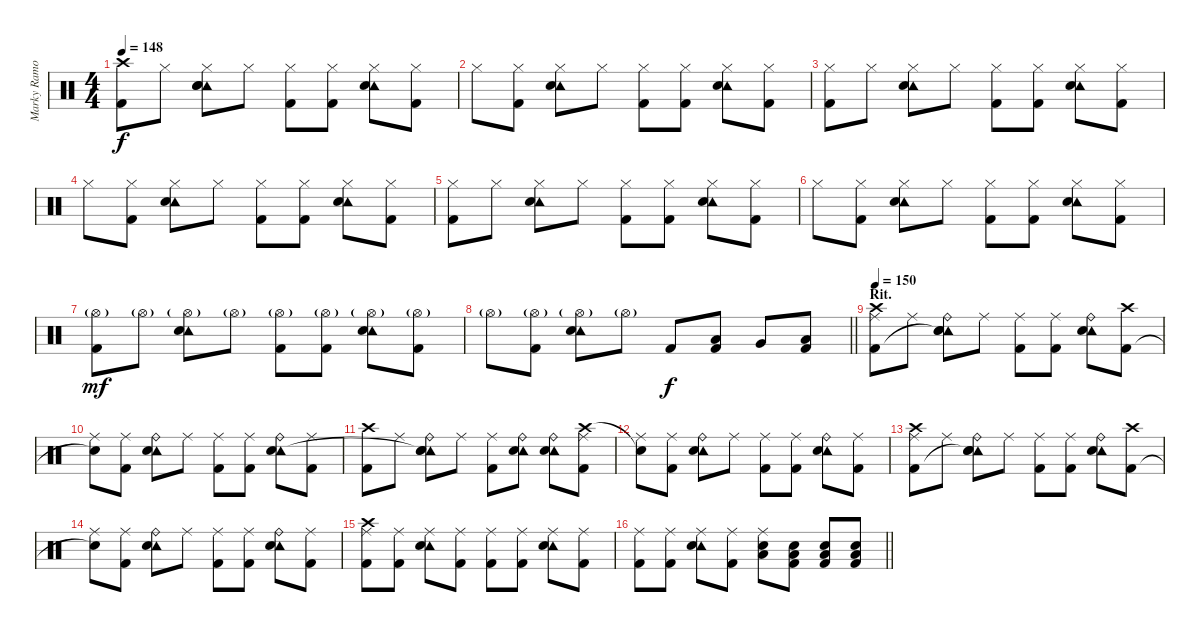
\track ("Marky Ramone - Drum" "Marky Ramo") {instrument percussion}
\staff {score}
\articulation defaults
\ts (4 4)
\tempo 148
\clef neutral
\ks c
("Crash high (hit)" "Kick (hit) 2").8{dy f} "Hi-Hat (closed)".8 ("Hi-Hat (closed)" "Tambourine (hit)" "Snare (hit)"{t} "Snare (hit) 2").8 "Hi-Hat (closed)".8 ("Hi-Hat (closed)" "Kick (hit) 2").8 ("Hi-Hat (closed)" "Kick (hit) 2").8 ("Hi-Hat (closed)" "Tambourine (hit)" "Snare (hit) 2").8 ("Hi-Hat (closed)" "Kick (hit) 2").8 |
"Hi-Hat (closed)".8 ("Hi-Hat (closed)" "Kick (hit) 2").8 ("Hi-Hat (closed)" "Tambourine (hit)" "Snare (hit) 2").8 "Hi-Hat (closed)".8 ("Hi-Hat (closed)" "Kick (hit) 2").8 ("Hi-Hat (closed)" "Kick (hit) 2").8 ("Hi-Hat (closed)" "Tambourine (hit)" "Snare (hit) 2").8 ("Hi-Hat (closed)" "Kick (hit) 2").8 |
("Hi-Hat (closed)" "Kick (hit) 2").8 "Hi-Hat (closed)".8 ("Hi-Hat (closed)" "Tambourine (hit)" "Snare (hit) 2").8 "Hi-Hat (closed)".8 ("Hi-Hat (closed)" "Kick (hit) 2").8 ("Hi-Hat (closed)" "Kick (hit) 2").8 ("Hi-Hat (closed)" "Tambourine (hit)" "Snare (hit) 2").8 ("Hi-Hat (closed)" "Kick (hit) 2").8 |
"Hi-Hat (closed)".8 ("Hi-Hat (closed)" "Kick (hit) 2").8 ("Hi-Hat (closed)" "Tambourine (hit)" "Snare (hit) 2").8 "Hi-Hat (closed)".8 ("Hi-Hat (closed)" "Kick (hit) 2").8 ("Hi-Hat (closed)" "Kick (hit) 2").8 ("Hi-Hat (closed)" "Tambourine (hit)" "Snare (hit) 2").8 ("Hi-Hat (closed)" "Kick (hit) 2").8 |
("Hi-Hat (closed)" "Kick (hit) 2").8 "Hi-Hat (closed)".8 ("Hi-Hat (closed)" "Tambourine (hit)" "Snare (hit) 2").8 "Hi-Hat (closed)".8 ("Hi-Hat (closed)" "Kick (hit) 2").8 ("Hi-Hat (closed)" "Kick (hit) 2").8 ("Hi-Hat (closed)" "Tambourine (hit)" "Snare (hit) 2").8 ("Hi-Hat (closed)" "Kick (hit) 2").8 |
"Hi-Hat (closed)".8 ("Hi-Hat (closed)" "Kick (hit) 2").8 ("Hi-Hat (closed)" "Tambourine (hit)" "Snare (hit) 2").8 "Hi-Hat (closed)".8 ("Hi-Hat (closed)" "Kick (hit) 2").8 ("Hi-Hat (closed)" "Kick (hit) 2").8 ("Hi-Hat (closed)" "Tambourine (hit)" "Snare (hit) 2").8 ("Hi-Hat (closed)" "Kick (hit) 2").8 |
("Hi-Hat (open)"{g} "Kick (hit) 2").8{dy mf} "Hi-Hat (open)"{g}.8 ("Hi-Hat (open)"{g} "Tambourine (hit)" "Snare (hit) 2").8 "Hi-Hat (open)"{g}.8 ("Hi-Hat (open)"{g} "Kick (hit) 2").8 ("Hi-Hat (open)"{g} "Kick (hit) 2").8 ("Hi-Hat (open)"{g} "Tambourine (hit)" "Snare (hit) 2").8 ("Hi-Hat (open)"{g} "Kick (hit) 2").8 |
\barLineRight lightlight "Hi-Hat (open)"{g}.8
("Hi-Hat (open)"{g} "Kick (hit) 2").8 ("Hi-Hat (open)"{g} "Tambourine (hit)" "Snare (hit) 2").8 "Hi-Hat (open)"{g}.8 "Kick (hit) 2".8{dy f} ("Low Tom (hit)" "Kick (hit) 2").8 "Very Low Tom (hit)".8 ("Low Floor Tom (hit)" "Kick (hit) 2").8 |
\section ("" "Rit.")
\tempo 150
("Ride (middle)" "Crash high (hit)" "Kick (hit) 2").8 "Ride (middle)".8 ("Ride (bell)" "Tambourine (hit)" "Snare (hit)"{t} "Snare (hit) 2").8 "Ride (middle)".8 ("Ride (middle)" "Kick (hit) 2").8 ("Ride (middle)" "Kick (hit) 2").8 ("Ride (bell)" "Tambourine (hit)" "Snare (hit) 2").8 ("Crash high (hit)" "Kick (hit) 2").8 |
("Ride (middle)" "Snare (hit)"{t}).8 ("Ride (middle)" "Kick (hit) 2").8 ("Ride (bell)" "Tambourine (hit)" "Snare (hit) 2").8 "Ride (middle)".8 ("Ride (middle)" "Kick (hit) 2").8 ("Ride (middle)" "Kick (hit) 2").8 ("Ride (bell)" "Tambourine (hit)" "Snare (hit) 2").8 ("Ride (middle)" "Kick (hit) 2").8 |
("Crash high (hit)" "Kick (hit) 2").8 "Ride (middle)".8 ("Ride (bell)" "Tambourine (hit)" "Snare (hit)"{t} "Snare (hit) 2").8 "Ride (middle)".8 ("Ride (middle)" "Kick (hit) 2").8 ("Ride (bell)" "Tambourine (hit)" "Snare (hit) 2").8 ("Ride (bell)" "Tambourine (hit)" "Snare (hit) 2").8 ("Ride (middle)" "Crash high (hit)" "Kick (hit) 2").8 |
("Ride (middle)" "Snare (hit)"{t}).8 ("Ride (middle)" "Kick (hit) 2").8 ("Ride (bell)" "Tambourine (hit)" "Snare (hit) 2").8 "Ride (middle)".8 ("Ride (middle)" "Kick (hit) 2").8 ("Ride (middle)" "Kick (hit) 2").8 ("Ride (bell)" "Tambourine (hit)" "Snare (hit) 2").8 ("Ride (middle)" "Kick (hit) 2").8 |
("Ride (middle)" "Crash high (hit)" "Kick (hit) 2").8 "Ride (middle)".8 ("Ride (bell)" "Tambourine (hit)" "Snare (hit)"{t} "Snare (hit) 2").8 "Ride (middle)".8 ("Ride (middle)" "Kick (hit) 2").8 ("Ride (middle)" "Kick (hit) 2").8 ("Ride (bell)" "Tambourine (hit)" "Snare (hit) 2").8 ("Crash high (hit)" "Kick (hit) 2").8 |
("Ride (middle)" "Snare (hit)"{t}).8 ("Ride (middle)" "Kick (hit) 2").8 ("Ride (bell)" "Tambourine (hit)" "Snare (hit) 2").8 "Ride (middle)".8 ("Ride (middle)" "Kick (hit) 2").8 ("Ride (middle)" "Kick (hit) 2").8 ("Ride (bell)" "Tambourine (hit)" "Snare (hit) 2").8 ("Ride (middle)" "Kick (hit) 2").8 |
("Ride (middle)" "Crash high (hit)" "Kick (hit) 2").8 ("Ride (middle)" "Kick (hit) 2").8 ("Ride (middle)" "Tambourine (hit)" "Snare (hit) 2").8 ("Ride (middle)" "Kick (hit) 2").8 ("Ride (middle)" "Kick (hit) 2").8 ("Ride (middle)" "Kick (hit) 2").8 ("Ride (middle)" "Tambourine (hit)" "Snare (hit) 2").8 ("Ride (middle)" "Kick (hit) 2").8 |
\barLineRight lightlight
("Ride (middle)" "Kick (hit) 2").8 ("Ride (middle)" "Kick (hit) 2").8 ("Ride (middle)" "Tambourine (hit)" "Snare (hit) 2").8 ("Ride (middle)" "Kick (hit) 2").8 ("Ride (middle)" "Low Floor Tom (hit)" "Snare (hit) 2").8 ("Low Floor Tom (hit)" "Snare (hit) 2" "Kick (hit) 2").8 ("Low Floor Tom (hit)" "Snare (hit) 2" "Kick (hit) 2").8 ("Low Floor Tom (hit)" "Snare (hit) 2" "Kick (hit) 2").8
